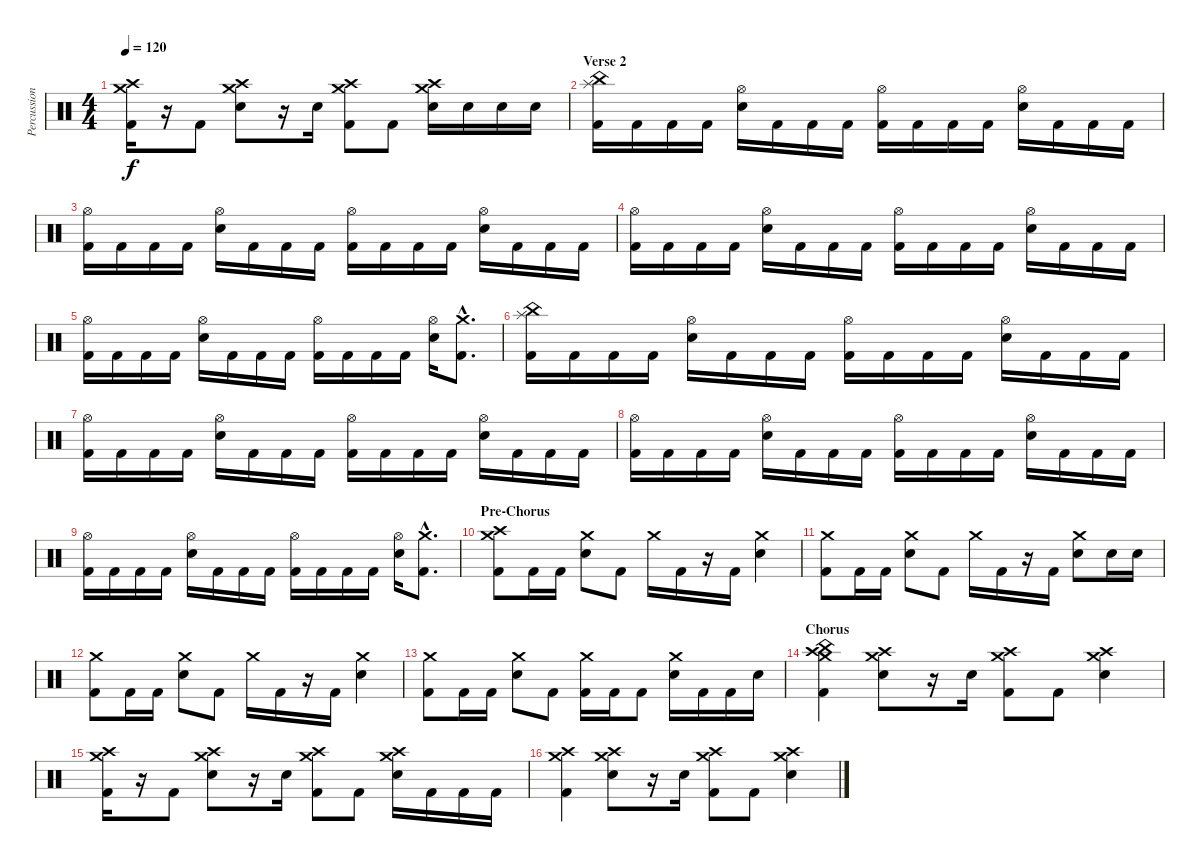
\track ("Percussion" "Percussion") {instrument percussion}
\staff {score}
\articulation defaults
\ts (4 4)
\tempo 120
\clef neutral
\ks c
("Crash high (hit)" "Crash medium (hit)" "Kick (hit) 2").16{dy f} r.16 "Kick (hit) 2".8 ("Crash high (hit)" "Crash medium (hit)" "Electric Snare (hit)").8 r.16 "Electric Snare (hit)".16 ("Crash high (hit)" "Crash medium (hit)" "Kick (hit) 2").8 "Kick (hit) 2".8 ("Crash high (hit)" "Crash medium (hit)" "Electric Snare (hit)").16 "Electric Snare (hit)".16 "Electric Snare (hit)".16 "Electric Snare (hit)".16 |
\section ("" "Verse 2")
("China (hit)" "Splash (hit)" "Kick (hit) 2").16 "Kick (hit) 2".16 "Kick (hit) 2".16 "Kick (hit) 2".16 ("Hi-Hat (open)" "Electric Snare (hit)").16 "Kick (hit) 2".16 "Kick (hit) 2".16 "Kick (hit) 2".16 ("Hi-Hat (open)" "Kick (hit) 2").16 "Kick (hit) 2".16 "Kick (hit) 2".16 "Kick (hit) 2".16 ("Hi-Hat (open)" "Electric Snare (hit)").16 "Kick (hit) 2".16 "Kick (hit) 2".16 "Kick (hit) 2".16 |
("Hi-Hat (open)" "Kick (hit) 2").16 "Kick (hit) 2".16 "Kick (hit) 2".16 "Kick (hit) 2".16 ("Hi-Hat (open)" "Electric Snare (hit)").16 "Kick (hit) 2".16 "Kick (hit) 2".16 "Kick (hit) 2".16 ("Hi-Hat (open)" "Kick (hit) 2").16 "Kick (hit) 2".16 "Kick (hit) 2".16 "Kick (hit) 2".16 ("Hi-Hat (open)" "Electric Snare (hit)").16 "Kick (hit) 2".16 "Kick (hit) 2".16 "Kick (hit) 2".16 |
("Hi-Hat (open)" "Kick (hit) 2").16 "Kick (hit) 2".16 "Kick (hit) 2".16 "Kick (hit) 2".16 ("Hi-Hat (open)" "Electric Snare (hit)").16 "Kick (hit) 2".16 "Kick (hit) 2".16 "Kick (hit) 2".16 ("Hi-Hat (open)" "Kick (hit) 2").16 "Kick (hit) 2".16 "Kick (hit) 2".16 "Kick (hit) 2".16 ("Hi-Hat (open)" "Electric Snare (hit)").16 "Kick (hit) 2".16 "Kick (hit) 2".16 "Kick (hit) 2".16 |
("Hi-Hat (open)" "Kick (hit) 2").16 "Kick (hit) 2".16 "Kick (hit) 2".16 "Kick (hit) 2".16 ("Hi-Hat (open)" "Electric Snare (hit)").16 "Kick (hit) 2".16 "Kick (hit) 2".16 "Kick (hit) 2".16 ("Hi-Hat (open)" "Kick (hit) 2").16 "Kick (hit) 2".16 "Kick (hit) 2".16 "Kick (hit) 2".16 ("Hi-Hat (open)" "Electric Snare (hit)").16 ("Crash medium (hit)"{hac} "Kick (hit) 2"{hac}).8{d} |
("China (hit)" "Splash (hit)" "Kick (hit) 2").16 "Kick (hit) 2".16 "Kick (hit) 2".16 "Kick (hit) 2".16 ("Hi-Hat (open)" "Electric Snare (hit)").16 "Kick (hit) 2".16 "Kick (hit) 2".16 "Kick (hit) 2".16 ("Hi-Hat (open)" "Kick (hit) 2").16 "Kick (hit) 2".16 "Kick (hit) 2".16 "Kick (hit) 2".16 ("Hi-Hat (open)" "Electric Snare (hit)").16 "Kick (hit) 2".16 "Kick (hit) 2".16 "Kick (hit) 2".16 |
("Hi-Hat (open)" "Kick (hit) 2").16 "Kick (hit) 2".16 "Kick (hit) 2".16 "Kick (hit) 2".16 ("Hi-Hat (open)" "Electric Snare (hit)").16 "Kick (hit) 2".16 "Kick (hit) 2".16 "Kick (hit) 2".16 ("Hi-Hat (open)" "Kick (hit) 2").16 "Kick (hit) 2".16 "Kick (hit) 2".16 "Kick (hit) 2".16 ("Hi-Hat (open)" "Electric Snare (hit)").16 "Kick (hit) 2".16 "Kick (hit) 2".16 "Kick (hit) 2".16 |
("Hi-Hat (open)" "Kick (hit) 2").16 "Kick (hit) 2".16 "Kick (hit) 2".16 "Kick (hit) 2".16 ("Hi-Hat (open)" "Electric Snare (hit)").16 "Kick (hit) 2".16 "Kick (hit) 2".16 "Kick (hit) 2".16 ("Hi-Hat (open)" "Kick (hit) 2").16 "Kick (hit) 2".16 "Kick (hit) 2".16 "Kick (hit) 2".16 ("Hi-Hat (open)" "Electric Snare (hit)").16 "Kick (hit) 2".16 "Kick (hit) 2".16 "Kick (hit) 2".16 |
("Hi-Hat (open)" "Kick (hit) 2").16 "Kick (hit) 2".16 "Kick (hit) 2".16 "Kick (hit) 2".16 ("Hi-Hat (open)" "Electric Snare (hit)").16 "Kick (hit) 2".16 "Kick (hit) 2".16 "Kick (hit) 2".16 ("Hi-Hat (open)" "Kick (hit) 2").16 "Kick (hit) 2".16 "Kick (hit) 2".16 "Kick (hit) 2".16 ("Hi-Hat (open)" "Electric Snare (hit)").16 ("Crash medium (hit)"{hac} "Kick (hit) 2"{hac}).8{d} |
\section ("" "Pre-Chorus")
("Crash medium (hit)" "Crash high (hit)" "Kick (hit) 2").8 "Kick (hit) 2".16 "Kick (hit) 2".16 ("Crash medium (hit)" "Electric Snare (hit)").8 "Kick (hit) 2".8 "Crash medium (hit)".16 "Kick (hit) 2".16 r.16 "Kick (hit) 2".16 ("Crash medium (hit)" "Electric Snare (hit)").4 |
("Crash medium (hit)" "Kick (hit) 2").8 "Kick (hit) 2".16 "Kick (hit) 2".16 ("Crash medium (hit)" "Electric Snare (hit)").8 "Kick (hit) 2".8 "Crash medium (hit)".16 "Kick (hit) 2".16 r.16 "Kick (hit) 2".16 ("Crash medium (hit)" "Electric Snare (hit)").8 "Electric Snare (hit)".16 "Electric Snare (hit)".16 |
("Crash medium (hit)" "Kick (hit) 2").8 "Kick (hit) 2".16 "Kick (hit) 2".16 ("Crash medium (hit)" "Electric Snare (hit)").8 "Kick (hit) 2".8 "Crash medium (hit)".16 "Kick (hit) 2".16 r.16 "Kick (hit) 2".16 ("Crash medium (hit)" "Electric Snare (hit)").4 |
("Crash medium (hit)" "Kick (hit) 2").8 "Kick (hit) 2".16 "Kick (hit) 2".16 ("Crash medium (hit)" "Electric Snare (hit)").8 "Kick (hit) 2".8 ("Crash medium (hit)" "Kick (hit) 2").16 "Kick (hit) 2".16 "Kick (hit) 2".8 ("Crash medium (hit)" "Electric Snare (hit)").16 "Kick (hit) 2".16 "Kick (hit) 2".16 "Electric Snare (hit)".16 |
\section ("" "Chorus")
("Crash high (hit)" "Crash medium (hit)" "China (hit)" "Kick (hit) 2").4 ("Crash high (hit)" "Crash medium (hit)" "Electric Snare (hit)").8 r.16 "Electric Snare (hit)".16 ("Crash high (hit)" "Crash medium (hit)" "Kick (hit) 2").8 "Kick (hit) 2".8 ("Crash high (hit)" "Crash medium (hit)" "Electric Snare (hit)").4 |
("Crash high (hit)" "Crash medium (hit)" "Kick (hit) 2").16 r.16 "Kick (hit) 2".8 ("Crash high (hit)" "Crash medium (hit)" "Electric Snare (hit)").8 r.16 "Electric Snare (hit)".16 ("Crash high (hit)" "Crash medium (hit)" "Kick (hit) 2").8 "Kick (hit) 2".8 ("Crash high (hit)" "Crash medium (hit)" "Electric Snare (hit)").16 "Kick (hit) 2".16 "Kick (hit) 2".16 "Kick (hit) 2".16 |
("Crash high (hit)" "Crash medium (hit)" "Kick (hit) 2").4 ("Crash high (hit)" "Crash medium (hit)" "Electric Snare (hit)").8 r.16 "Electric Snare (hit)".16 ("Crash high (hit)" "Crash medium (hit)" "Kick (hit) 2").8 "Kick (hit) 2".8 ("Crash high (hit)" "Crash medium (hit)" "Electric Snare (hit)").4
